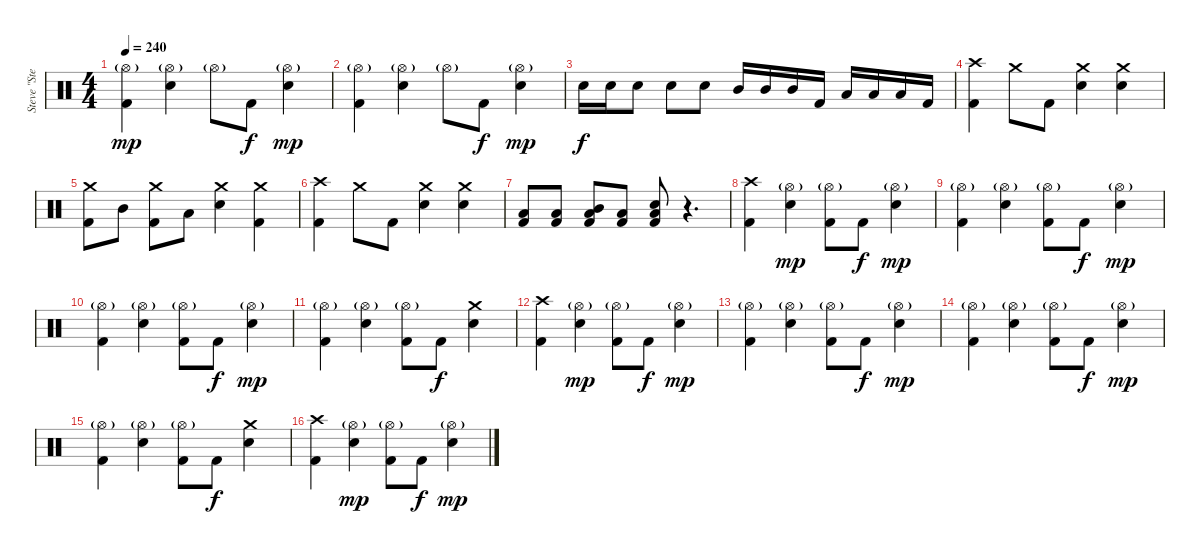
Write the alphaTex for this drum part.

\track ("Steve \"Stevo32\" Jocz " "Steve \"Ste") {instrument percussion}
\staff {score}
\articulation defaults
\ts (4 4)
\tempo 240
\clef neutral
\ks c
("Hi-Hat (open)"{g} "Kick (hit) 2").4{dy mp} ("Hi-Hat (open)"{g} "Electric Snare (hit)").4 "Hi-Hat (open)"{g}.8 "Kick (hit) 2".8{dy f} ("Hi-Hat (open)"{g} "Electric Snare (hit)").4{dy mp} |
("Hi-Hat (open)"{g} "Kick (hit) 2").4 ("Hi-Hat (open)"{g} "Electric Snare (hit)").4 "Hi-Hat (open)"{g}.8 "Kick (hit) 2".8{dy f} ("Hi-Hat (open)"{g} "Electric Snare (hit)").4{dy mp} |
"Electric Snare (hit)".16{dy f} "Electric Snare (hit)".16 "Electric Snare (hit)".8 "Electric Snare (hit)".8 "Electric Snare (hit)".8 "Mid Tom (hit)".16 "Mid Tom (hit)".16 "Mid Tom (hit)".16 "Kick (hit) 2".16 "Low Tom (hit)".16 "Low Tom (hit)".16 "Low Tom (hit)".16 "Kick (hit) 2".16 |
("Crash high (hit)" "Kick (hit) 2").4 "Crash medium (hit)".8 "Kick (hit) 2".8 ("Crash medium (hit)" "Electric Snare (hit)").4 ("Crash medium (hit)" "Electric Snare (hit)").4 |
("Crash medium (hit)" "Kick (hit) 2").8 "Mid Tom (hit)".8 ("Crash medium (hit)" "Kick (hit) 2").8 "Low Tom (hit)".8 ("Crash medium (hit)" "Electric Snare (hit)").4 ("Crash medium (hit)" "Kick (hit) 2").4 |
("Crash high (hit)" "Kick (hit) 2").4 "Crash medium (hit)".8 "Kick (hit) 2".8 ("Crash medium (hit)" "Electric Snare (hit)").4 ("Crash medium (hit)" "Electric Snare (hit)").4 |
("Low Tom (hit)" "Kick (hit) 2").8 ("Low Tom (hit)" "Kick (hit) 2").8 ("Low Tom (hit)" "Mid Tom (hit)" "Kick (hit) 2").8 ("Low Tom (hit)" "Kick (hit) 2").8 ("Low Tom (hit)" "Electric Snare (hit)" "Kick (hit) 2").8 r.4{d} |
("Crash high (hit)" "Kick (hit) 2").4 ("Hi-Hat (open)"{g} "Electric Snare (hit)").4{dy mp} ("Hi-Hat (open)"{g} "Kick (hit) 2").8 "Kick (hit) 2".8{dy f} ("Hi-Hat (open)"{g} "Electric Snare (hit)").4{dy mp} |
("Hi-Hat (open)"{g} "Kick (hit) 2").4 ("Hi-Hat (open)"{g} "Electric Snare (hit)").4 ("Hi-Hat (open)"{g} "Kick (hit) 2").8 "Kick (hit) 2".8{dy f} ("Hi-Hat (open)"{g} "Electric Snare (hit)").4{dy mp} |
("Hi-Hat (open)"{g} "Kick (hit) 2").4 ("Hi-Hat (open)"{g} "Electric Snare (hit)").4 ("Hi-Hat (open)"{g} "Kick (hit) 2").8 "Kick (hit) 2".8{dy f} ("Hi-Hat (open)"{g} "Electric Snare (hit)").4{dy mp} |
("Hi-Hat (open)"{g} "Kick (hit) 2").4 ("Hi-Hat (open)"{g} "Electric Snare (hit)").4 ("Hi-Hat (open)"{g} "Kick (hit) 2").8 "Kick (hit) 2".8{dy f} ("Crash medium (hit)" "Electric Snare (hit)").4 |
("Crash high (hit)" "Kick (hit) 2").4 ("Hi-Hat (open)"{g} "Electric Snare (hit)").4{dy mp} ("Hi-Hat (open)"{g} "Kick (hit) 2").8 "Kick (hit) 2".8{dy f} ("Hi-Hat (open)"{g} "Electric Snare (hit)").4{dy mp} |
("Hi-Hat (open)"{g} "Kick (hit) 2").4 ("Hi-Hat (open)"{g} "Electric Snare (hit)").4 ("Hi-Hat (open)"{g} "Kick (hit) 2").8 "Kick (hit) 2".8{dy f} ("Hi-Hat (open)"{g} "Electric Snare (hit)").4{dy mp} |
("Hi-Hat (open)"{g} "Kick (hit) 2").4 ("Hi-Hat (open)"{g} "Electric Snare (hit)").4 ("Hi-Hat (open)"{g} "Kick (hit) 2").8 "Kick (hit) 2".8{dy f} ("Hi-Hat (open)"{g} "Electric Snare (hit)").4{dy mp} |
("Hi-Hat (open)"{g} "Kick (hit) 2").4 ("Hi-Hat (open)"{g} "Electric Snare (hit)").4 ("Hi-Hat (open)"{g} "Kick (hit) 2").8 "Kick (hit) 2".8{dy f} ("Crash medium (hit)" "Electric Snare (hit)").4 |
("Crash high (hit)" "Kick (hit) 2").4 ("Hi-Hat (open)"{g} "Electric Snare (hit)").4{dy mp} ("Hi-Hat (open)"{g} "Kick (hit) 2").8 "Kick (hit) 2".8{dy f} ("Hi-Hat (open)"{g} "Electric Snare (hit)").4{dy mp}
